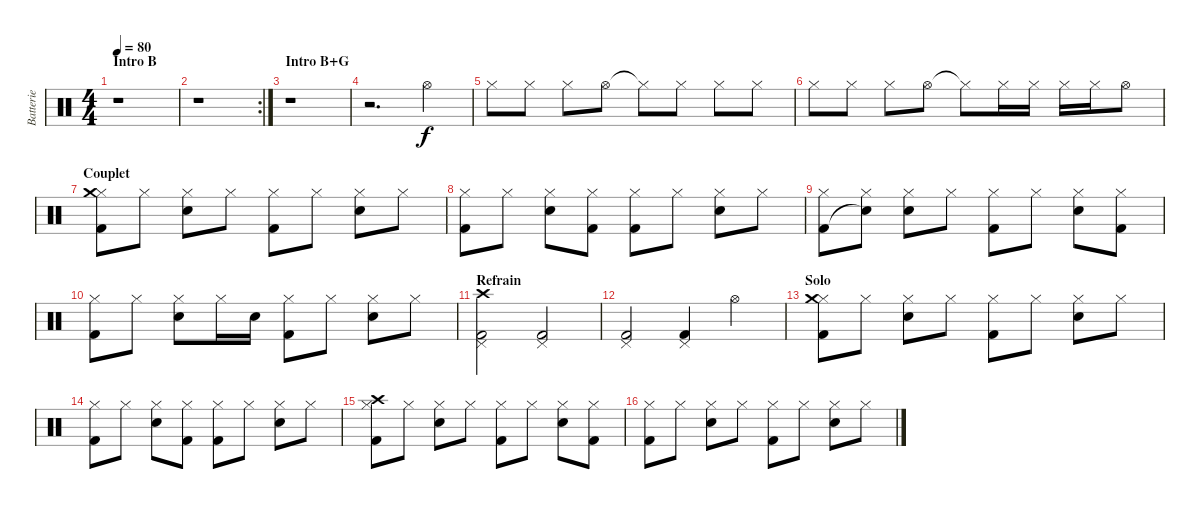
\track ("Batterie" "Batterie") {instrument percussion}
\staff {score}
\articulation defaults
\ts (4 4)
\section ("" "Intro B")
\tempo 80
\clef neutral
\ks c
r.1{dy f} |
\rc 2
r.1 |
\section ("" "Intro B+G")
r.1 |
r.2{d} "Hi-Hat (open)".4{volume 10} |
"Hi-Hat (closed)".8 "Hi-Hat (closed)".8 "Hi-Hat (closed)".8 "Hi-Hat (open)".8 "Hi-Hat (closed)"{t}.8 "Hi-Hat (closed)".8 "Hi-Hat (closed)".8 "Hi-Hat (closed)".8 |
"Hi-Hat (closed)".8 "Hi-Hat (closed)".8 "Hi-Hat (closed)".8 "Hi-Hat (open)".8 "Hi-Hat (closed)"{t}.8 "Hi-Hat (closed)".16 "Hi-Hat (closed)".16 "Hi-Hat (closed)".16 "Hi-Hat (closed)".16 "Hi-Hat (open)".8 |
\section ("" "Couplet")
("Hi-Hat (closed)" "Crash medium (hit)" "Kick (hit) 2").8{volume 11} "Hi-Hat (closed)".8 ("Hi-Hat (closed)" "Snare (hit) 2").8 "Hi-Hat (closed)".8 ("Hi-Hat (closed)" "Kick (hit) 2").8 "Hi-Hat (closed)".8 ("Hi-Hat (closed)" "Snare (hit) 2").8 "Hi-Hat (closed)".8 |
("Hi-Hat (closed)" "Kick (hit) 2").8 "Hi-Hat (closed)".8 ("Hi-Hat (closed)" "Snare (hit) 2").8 ("Hi-Hat (closed)" "Kick (hit) 2").8 ("Hi-Hat (closed)" "Kick (hit) 2").8 "Hi-Hat (closed)".8 ("Hi-Hat (closed)" "Snare (hit) 2").8 "Hi-Hat (closed)".8 |
("Hi-Hat (closed)" "Kick (hit) 2").8 ("Hi-Hat (closed)" "Snare (hit)"{t}).8 ("Hi-Hat (closed)" "Snare (hit) 2").8 "Hi-Hat (closed)".8 ("Hi-Hat (closed)" "Kick (hit) 2").8 "Hi-Hat (closed)".8 ("Hi-Hat (closed)" "Snare (hit) 2").8 ("Hi-Hat (closed)" "Kick (hit) 2").8 |
("Hi-Hat (closed)" "Kick (hit) 2").8 "Hi-Hat (closed)".8 ("Hi-Hat (closed)" "Snare (hit) 2").8 "Hi-Hat (closed)".16 "Snare (hit) 2".16 ("Hi-Hat (closed)" "Kick (hit) 2").8 "Hi-Hat (closed)".8 ("Hi-Hat (closed)" "Snare (hit) 2").8 "Hi-Hat (closed)".8 |
\section ("" "Refrain")
("Pedal Hi-Hat (hit)" "Crash high (hit)" "Kick (hit) 2").2 ("Pedal Hi-Hat (hit)" "Kick (hit) 2").2 |
("Pedal Hi-Hat (hit)" "Kick (hit) 2").2 ("Pedal Hi-Hat (hit)" "Kick (hit) 2").4 "Hi-Hat (open)".4 |
\section ("" "Solo")
("Hi-Hat (closed)" "Crash medium (hit)" "Kick (hit) 2").8 "Hi-Hat (closed)".8 ("Hi-Hat (closed)" "Snare (hit) 2").8 "Hi-Hat (closed)".8 ("Hi-Hat (closed)" "Kick (hit) 2").8 "Hi-Hat (closed)".8 ("Hi-Hat (closed)" "Snare (hit) 2").8 "Hi-Hat (closed)".8 |
("Hi-Hat (closed)" "Kick (hit) 2").8 "Hi-Hat (closed)".8 ("Hi-Hat (closed)" "Snare (hit) 2").8 ("Hi-Hat (closed)" "Kick (hit) 2").8 ("Hi-Hat (closed)" "Kick (hit) 2").8 "Hi-Hat (closed)".8 ("Hi-Hat (closed)" "Snare (hit) 2").8 "Hi-Hat (closed)".8 |
("Hi-Hat (closed)" "Crash high (hit)" "Kick (hit) 2").8 "Hi-Hat (closed)".8 ("Hi-Hat (closed)" "Snare (hit) 2").8 "Hi-Hat (closed)".8 ("Hi-Hat (closed)" "Kick (hit) 2").8 "Hi-Hat (closed)".8 ("Hi-Hat (closed)" "Snare (hit) 2").8 ("Hi-Hat (closed)" "Kick (hit) 2").8 |
("Hi-Hat (closed)" "Kick (hit) 2").8 "Hi-Hat (closed)".8 ("Hi-Hat (closed)" "Snare (hit) 2").8 "Hi-Hat (closed)".8 ("Hi-Hat (closed)" "Kick (hit) 2").8 "Hi-Hat (closed)".8 ("Hi-Hat (closed)" "Snare (hit) 2").8 "Hi-Hat (closed)".8
